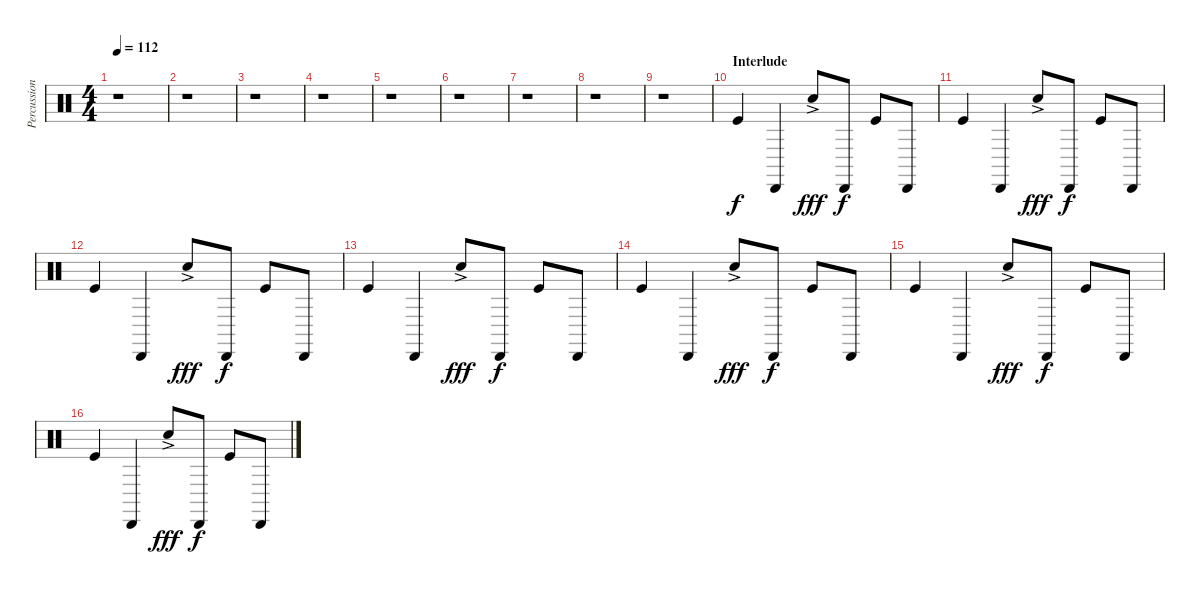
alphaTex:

\track ("Percussion" "Percussion") {instrument percussion}
\staff {score}
\articulation defaults
\ts (4 4)
\tempo 112
\clef neutral
\ks c
r.1{dy f} |
r.1 |
r.1 |
r.1 |
r.1 |
r.1 |
r.1 |
r.1 |
r.1 |
\section ("" "Interlude")
"Kick (hit)".4{volume 14 balance 8} "Cabasa (hit)".4 "Snare (hit) 2"{ac}.8{dy fff} "Cabasa (hit)".8{dy f} "Kick (hit)".8 "Cabasa (hit)".8 |
"Kick (hit)".4 "Cabasa (hit)".4 "Snare (hit) 2"{ac}.8{dy fff} "Cabasa (hit)".8{dy f} "Kick (hit)".8 "Cabasa (hit)".8 |
"Kick (hit)".4 "Cabasa (hit)".4 "Snare (hit) 2"{ac}.8{dy fff} "Cabasa (hit)".8{dy f} "Kick (hit)".8 "Cabasa (hit)".8 |
"Kick (hit)".4 "Cabasa (hit)".4 "Snare (hit) 2"{ac}.8{dy fff} "Cabasa (hit)".8{dy f} "Kick (hit)".8 "Cabasa (hit)".8 |
"Kick (hit)".4 "Cabasa (hit)".4 "Snare (hit) 2"{ac}.8{dy fff} "Cabasa (hit)".8{dy f} "Kick (hit)".8 "Cabasa (hit)".8 |
"Kick (hit)".4 "Cabasa (hit)".4 "Snare (hit) 2"{ac}.8{dy fff} "Cabasa (hit)".8{dy f} "Kick (hit)".8 "Cabasa (hit)".8 |
"Kick (hit)".4 "Cabasa (hit)".4 "Snare (hit) 2"{ac}.8{dy fff} "Cabasa (hit)".8{dy f} "Kick (hit)".8 "Cabasa (hit)".8
